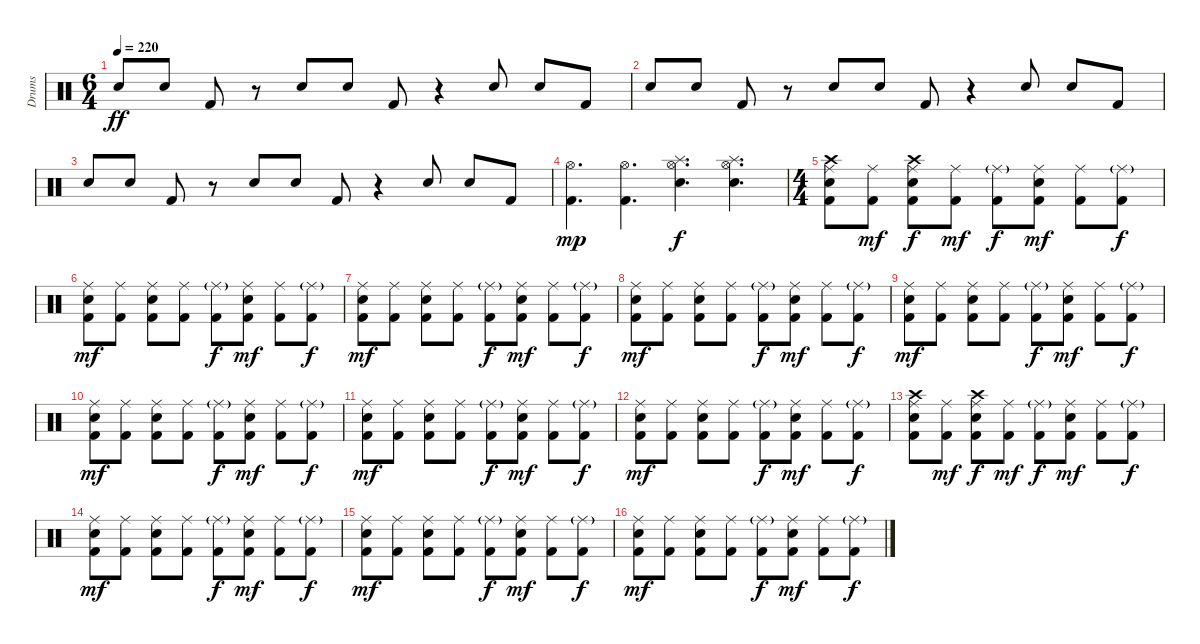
\bracketExtendMode groupsimilarinstruments
\otherSystemsTrackNameOrientation horizontal
\track ("Drumkit" "Drums") {instrument percussion}
\staff {score}
\articulation defaults
\ts (6 4)
\tempo 220
\clef neutral
\ks c "Snare (hit) 2".8{dy ff beam Up} "Snare (hit) 2".8{beam Up} "Kick (hit) 2".8{beam Up}
r.8{beam Up} "Snare (hit) 2".8{beam Up} "Snare (hit) 2".8{beam Up} "Kick (hit) 2".8{beam Up} r.4{beam Up} "Snare (hit) 2".8{beam Up} "Snare (hit) 2".8{beam Up} "Kick (hit) 2".8{beam Up} |
"Snare (hit) 2".8{beam Up} "Snare (hit) 2".8{beam Up} "Kick (hit) 2".8{beam Up} r.8{beam Up} "Snare (hit) 2".8{beam Up} "Snare (hit) 2".8{beam Up} "Kick (hit) 2".8{beam Up} r.4{beam Up} "Snare (hit) 2".8{beam Up} "Snare (hit) 2".8{beam Up} "Kick (hit) 2".8{beam Up} |
"Snare (hit) 2".8{beam Up} "Snare (hit) 2".8{beam Up} "Kick (hit) 2".8{beam Up} r.8{beam Up} "Snare (hit) 2".8{beam Up} "Snare (hit) 2".8{beam Up} "Kick (hit) 2".8{beam Up} r.4{beam Up} "Snare (hit) 2".8{beam Up} "Snare (hit) 2".8{beam Up} "Kick (hit) 2".8{beam Up} |
("Hi-Hat (open)" "Kick (hit) 2").4{d dy mp beam Down} ("Hi-Hat (open)" "Kick (hit) 2").4{d beam Down} ("Splash (hit)" "Hi-Hat (open)" "Snare (hit) 2").4{d dy f beam Down} ("Splash (hit)" "Hi-Hat (open)" "Snare (hit) 2").4{d beam Down} |
\ts (4 4)
("Crash high (hit)" "Ride (middle)" "Snare (hit) 2" "Kick (hit) 2").8{beam Down} ("Ride (middle)" "Kick (hit) 2").8{dy mf beam Down} ("Crash high (hit)" "Ride (middle)" "Snare (hit) 2" "Kick (hit) 2").8{dy f beam Down} ("Ride (middle)" "Kick (hit) 2").8{dy mf beam Down} ("Ride (middle)"{g} "Kick (hit) 2").8{dy f beam Down} ("Ride (middle)" "Snare (hit) 2" "Kick (hit) 2").8{dy mf beam Down} ("Ride (middle)" "Kick (hit) 2").8{beam Down} ("Ride (middle)"{g} "Kick (hit) 2").8{dy f beam Down} |
("Ride (middle)" "Snare (hit) 2" "Kick (hit) 2").8{dy mf beam Down} ("Ride (middle)" "Kick (hit) 2").8{beam Down} ("Ride (middle)" "Snare (hit) 2" "Kick (hit) 2").8{beam Down} ("Ride (middle)" "Kick (hit) 2").8{beam Down} ("Ride (middle)"{g} "Kick (hit) 2").8{dy f beam Down} ("Ride (middle)" "Snare (hit) 2" "Kick (hit) 2").8{dy mf beam Down} ("Ride (middle)" "Kick (hit) 2").8{beam Down} ("Ride (middle)"{g} "Kick (hit) 2").8{dy f beam Down} |
("Ride (middle)" "Snare (hit) 2" "Kick (hit) 2").8{dy mf beam Down} ("Ride (middle)" "Kick (hit) 2").8{beam Down} ("Ride (middle)" "Snare (hit) 2" "Kick (hit) 2").8{beam Down} ("Ride (middle)" "Kick (hit) 2").8{beam Down} ("Ride (middle)"{g} "Kick (hit) 2").8{dy f beam Down} ("Ride (middle)" "Snare (hit) 2" "Kick (hit) 2").8{dy mf beam Down} ("Ride (middle)" "Kick (hit) 2").8{beam Down} ("Ride (middle)"{g} "Kick (hit) 2").8{dy f beam Down} |
("Ride (middle)" "Snare (hit) 2" "Kick (hit) 2").8{dy mf beam Down} ("Ride (middle)" "Kick (hit) 2").8{beam Down} ("Ride (middle)" "Snare (hit) 2" "Kick (hit) 2").8{beam Down} ("Ride (middle)" "Kick (hit) 2").8{beam Down} ("Ride (middle)"{g} "Kick (hit) 2").8{dy f beam Down} ("Ride (middle)" "Snare (hit) 2" "Kick (hit) 2").8{dy mf beam Down} ("Ride (middle)" "Kick (hit) 2").8{beam Down} ("Ride (middle)"{g} "Kick (hit) 2").8{dy f beam Down} |
("Ride (middle)" "Snare (hit) 2" "Kick (hit) 2").8{dy mf beam Down} ("Ride (middle)" "Kick (hit) 2").8{beam Down} ("Ride (middle)" "Snare (hit) 2" "Kick (hit) 2").8{beam Down} ("Ride (middle)" "Kick (hit) 2").8{beam Down} ("Ride (middle)"{g} "Kick (hit) 2").8{dy f beam Down} ("Ride (middle)" "Snare (hit) 2" "Kick (hit) 2").8{dy mf beam Down} ("Ride (middle)" "Kick (hit) 2").8{beam Down} ("Ride (middle)"{g} "Kick (hit) 2").8{dy f beam Down} |
("Ride (middle)" "Snare (hit) 2" "Kick (hit) 2").8{dy mf beam Down} ("Ride (middle)" "Kick (hit) 2").8{beam Down} ("Ride (middle)" "Snare (hit) 2" "Kick (hit) 2").8{beam Down} ("Ride (middle)" "Kick (hit) 2").8{beam Down} ("Ride (middle)"{g} "Kick (hit) 2").8{dy f beam Down} ("Ride (middle)" "Snare (hit) 2" "Kick (hit) 2").8{dy mf beam Down} ("Ride (middle)" "Kick (hit) 2").8{beam Down} ("Ride (middle)"{g} "Kick (hit) 2").8{dy f beam Down} |
("Ride (middle)" "Snare (hit) 2" "Kick (hit) 2").8{dy mf beam Down} ("Ride (middle)" "Kick (hit) 2").8{beam Down} ("Ride (middle)" "Snare (hit) 2" "Kick (hit) 2").8{beam Down} ("Ride (middle)" "Kick (hit) 2").8{beam Down} ("Ride (middle)"{g} "Kick (hit) 2").8{dy f beam Down} ("Ride (middle)" "Snare (hit) 2" "Kick (hit) 2").8{dy mf beam Down} ("Ride (middle)" "Kick (hit) 2").8{beam Down} ("Ride (middle)"{g} "Kick (hit) 2").8{dy f beam Down} |
("Ride (middle)" "Snare (hit) 2" "Kick (hit) 2").8{dy mf beam Down} ("Ride (middle)" "Kick (hit) 2").8{beam Down} ("Ride (middle)" "Snare (hit) 2" "Kick (hit) 2").8{beam Down} ("Ride (middle)" "Kick (hit) 2").8{beam Down} ("Ride (middle)"{g} "Kick (hit) 2").8{dy f beam Down} ("Ride (middle)" "Snare (hit) 2" "Kick (hit) 2").8{dy mf beam Down} ("Ride (middle)" "Kick (hit) 2").8{beam Down} ("Ride (middle)"{g} "Kick (hit) 2").8{dy f beam Down} |
("Crash high (hit)" "Ride (middle)" "Snare (hit) 2" "Kick (hit) 2").8{beam Down} ("Ride (middle)" "Kick (hit) 2").8{dy mf beam Down} ("Crash high (hit)" "Ride (middle)" "Snare (hit) 2" "Kick (hit) 2").8{dy f beam Down} ("Ride (middle)" "Kick (hit) 2").8{dy mf beam Down} ("Ride (middle)"{g} "Kick (hit) 2").8{dy f beam Down} ("Ride (middle)" "Snare (hit) 2" "Kick (hit) 2").8{dy mf beam Down} ("Ride (middle)" "Kick (hit) 2").8{beam Down} ("Ride (middle)"{g} "Kick (hit) 2").8{dy f beam Down} |
("Ride (middle)" "Snare (hit) 2" "Kick (hit) 2").8{dy mf beam Down} ("Ride (middle)" "Kick (hit) 2").8{beam Down} ("Ride (middle)" "Snare (hit) 2" "Kick (hit) 2").8{beam Down} ("Ride (middle)" "Kick (hit) 2").8{beam Down} ("Ride (middle)"{g} "Kick (hit) 2").8{dy f beam Down} ("Ride (middle)" "Snare (hit) 2" "Kick (hit) 2").8{dy mf beam Down} ("Ride (middle)" "Kick (hit) 2").8{beam Down} ("Ride (middle)"{g} "Kick (hit) 2").8{dy f beam Down} |
("Ride (middle)" "Snare (hit) 2" "Kick (hit) 2").8{dy mf beam Down} ("Ride (middle)" "Kick (hit) 2").8{beam Down} ("Ride (middle)" "Snare (hit) 2" "Kick (hit) 2").8{beam Down} ("Ride (middle)" "Kick (hit) 2").8{beam Down} ("Ride (middle)"{g} "Kick (hit) 2").8{dy f beam Down} ("Ride (middle)" "Snare (hit) 2" "Kick (hit) 2").8{dy mf beam Down} ("Ride (middle)" "Kick (hit) 2").8{beam Down} ("Ride (middle)"{g} "Kick (hit) 2").8{dy f beam Down} |
("Ride (middle)" "Snare (hit) 2" "Kick (hit) 2").8{dy mf beam Down} ("Ride (middle)" "Kick (hit) 2").8{beam Down} ("Ride (middle)" "Snare (hit) 2" "Kick (hit) 2").8{beam Down} ("Ride (middle)" "Kick (hit) 2").8{beam Down} ("Ride (middle)"{g} "Kick (hit) 2").8{dy f beam Down} ("Ride (middle)" "Snare (hit) 2" "Kick (hit) 2").8{dy mf beam Down} ("Ride (middle)" "Kick (hit) 2").8{beam Down} ("Ride (middle)"{g} "Kick (hit) 2").8{dy f beam Down}
